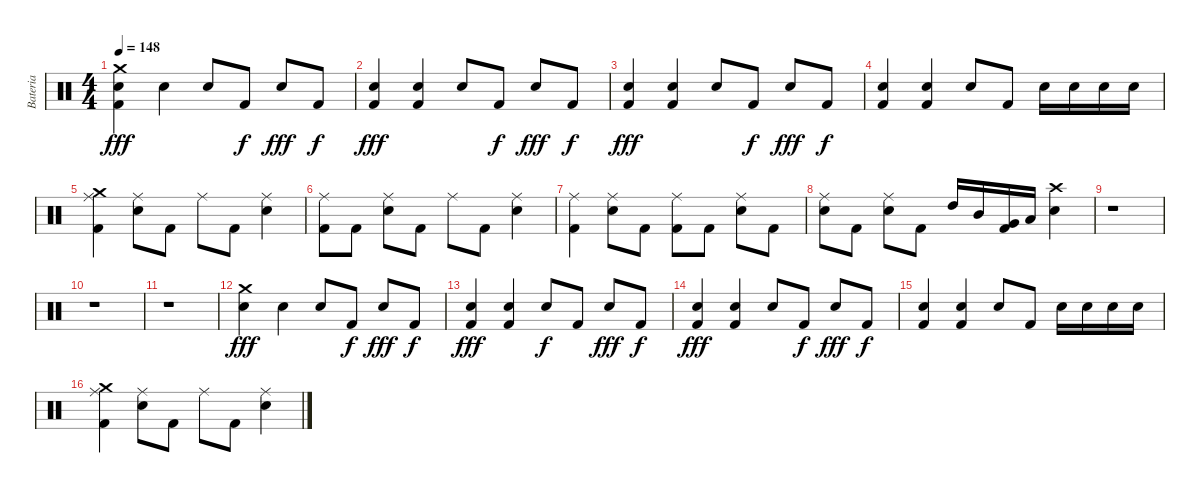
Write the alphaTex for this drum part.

\track ("Bateria" "Bateria") {instrument percussion}
\staff {score}
\articulation defaults
\ts (4 4)
\tempo 148
\clef neutral
\ks c
("Crash medium (hit)" "Electric Snare (hit)" "Kick (hit) 2").4{dy fff} "Electric Snare (hit)".4 "Electric Snare (hit)".8 "Kick (hit) 2".8{dy f} "Electric Snare (hit)".8{dy fff} "Kick (hit) 2".8{dy f} |
("Kick (hit) 2" "Electric Snare (hit)").4{dy fff} ("Electric Snare (hit)" "Kick (hit) 2").4 "Electric Snare (hit)".8 "Kick (hit) 2".8{dy f} "Electric Snare (hit)".8{dy fff} "Kick (hit) 2".8{dy f} |
("Electric Snare (hit)" "Kick (hit) 2").4{dy fff} ("Electric Snare (hit)" "Kick (hit) 2").4 "Electric Snare (hit)".8 "Kick (hit) 2".8{dy f} "Electric Snare (hit)".8{dy fff} "Kick (hit) 2".8{dy f} |
("Electric Snare (hit)" "Kick (hit) 2").4 ("Electric Snare (hit)" "Kick (hit) 2").4 "Electric Snare (hit)".8 "Kick (hit) 2".8 "Electric Snare (hit)".16 "Electric Snare (hit)".16 "Electric Snare (hit)".16 "Electric Snare (hit)".16 |
("Crash medium (hit)" "Kick (hit) 2" "Ride (middle)").4 ("Electric Snare (hit)" "Ride (middle)").8 "Kick (hit) 2".8 "Ride (middle)".8 "Kick (hit) 2".8 ("Electric Snare (hit)" "Ride (middle)").4 |
("Kick (hit) 2" "Ride (middle)").8 "Kick (hit) 2".8 ("Electric Snare (hit)" "Ride (middle)").8 "Kick (hit) 2".8 "Ride (middle)".8 "Kick (hit) 2".8 ("Electric Snare (hit)" "Ride (middle)").4 |
("Kick (hit) 2" "Ride (middle)").4 ("Electric Snare (hit)" "Ride (middle)").8 "Kick (hit) 2".8 ("Kick (hit) 2" "Ride (middle)").8 "Kick (hit) 2".8 ("Electric Snare (hit)" "Ride (middle)").8 "Kick (hit) 2".8 |
("Electric Snare (hit)" "Ride (middle)").8 "Kick (hit) 2".8 ("Electric Snare (hit)" "Ride (middle)").8 "Kick (hit) 2".8 "High Tom (hit)".16 "Mid Tom (hit)".16 ("Very Low Tom (hit)" "Kick (hit) 2").16 "Low Floor Tom (hit)".16 ("Electric Snare (hit)" "Crash high (hit)").4 |
r.1 |
r.1 |
r.1 |
("Crash medium (hit)" "Electric Snare (hit)").4{dy fff} "Electric Snare (hit)".4 "Electric Snare (hit)".8 "Kick (hit) 2".8{dy f} "Electric Snare (hit)".8{dy fff} "Kick (hit) 2".8{dy f} |
("Kick (hit) 2" "Electric Snare (hit)").4{dy fff} ("Electric Snare (hit)" "Kick (hit) 2").4 "Electric Snare (hit)".8{dy f} "Kick (hit) 2".8 "Electric Snare (hit)".8{dy fff} "Kick (hit) 2".8{dy f} |
("Electric Snare (hit)" "Kick (hit) 2").4{dy fff} ("Electric Snare (hit)" "Kick (hit) 2").4 "Electric Snare (hit)".8 "Kick (hit) 2".8{dy f} "Electric Snare (hit)".8{dy fff} "Kick (hit) 2".8{dy f} |
("Electric Snare (hit)" "Kick (hit) 2").4 ("Electric Snare (hit)" "Kick (hit) 2").4 "Electric Snare (hit)".8 "Kick (hit) 2".8 "Electric Snare (hit)".16 "Electric Snare (hit)".16 "Electric Snare (hit)".16 "Electric Snare (hit)".16 |
("Crash medium (hit)" "Kick (hit) 2" "Ride (middle)").4 ("Electric Snare (hit)" "Ride (middle)").8 "Kick (hit) 2".8 "Ride (middle)".8 "Kick (hit) 2".8 ("Electric Snare (hit)" "Ride (middle)").4
